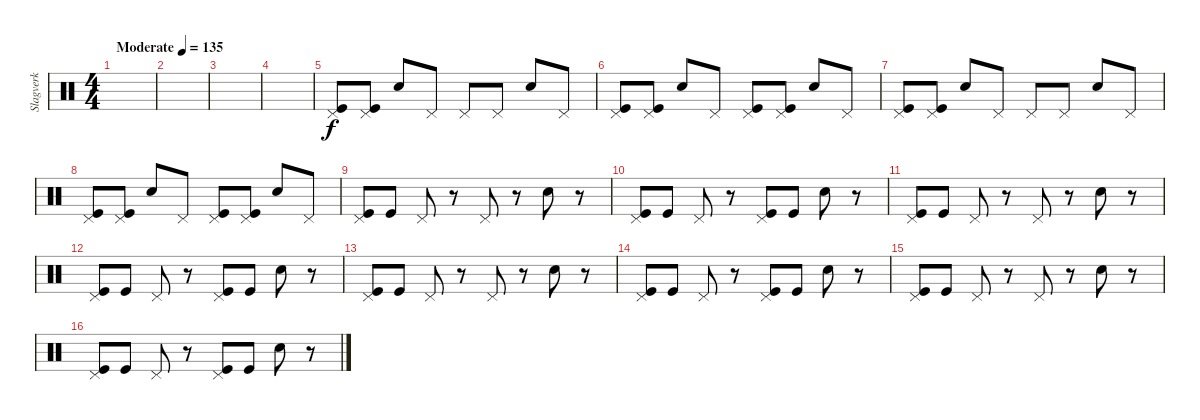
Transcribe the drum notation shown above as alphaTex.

\track ("Slagverk" "Slagverk") {instrument percussion}
\staff {score}
\articulation defaults
\ts (4 4)
\tempo (135 "Moderate")
\clef neutral
\ks c
|
|
|
|
("Pedal Hi-Hat (hit)" "Kick (hit)").8 ("Pedal Hi-Hat (hit)" "Kick (hit)").8 "Hand Clap (hit)".8 "Pedal Hi-Hat (hit)".8 "Pedal Hi-Hat (hit)".8 "Pedal Hi-Hat (hit)".8 "Hand Clap (hit)".8 "Pedal Hi-Hat (hit)".8 |
("Pedal Hi-Hat (hit)" "Kick (hit)").8 ("Pedal Hi-Hat (hit)" "Kick (hit)").8 "Hand Clap (hit)".8 "Pedal Hi-Hat (hit)".8 ("Pedal Hi-Hat (hit)" "Kick (hit)").8 ("Pedal Hi-Hat (hit)" "Kick (hit)").8 "Hand Clap (hit)".8 "Pedal Hi-Hat (hit)".8 |
("Pedal Hi-Hat (hit)" "Kick (hit)").8 ("Pedal Hi-Hat (hit)" "Kick (hit)").8 "Hand Clap (hit)".8 "Pedal Hi-Hat (hit)".8 "Pedal Hi-Hat (hit)".8 "Pedal Hi-Hat (hit)".8 "Hand Clap (hit)".8 "Pedal Hi-Hat (hit)".8 |
("Pedal Hi-Hat (hit)" "Kick (hit)").8 ("Pedal Hi-Hat (hit)" "Kick (hit)").8 "Hand Clap (hit)".8 "Pedal Hi-Hat (hit)".8 ("Pedal Hi-Hat (hit)" "Kick (hit)").8 ("Pedal Hi-Hat (hit)" "Kick (hit)").8 "Hand Clap (hit)".8 "Pedal Hi-Hat (hit)".8 |
("Pedal Hi-Hat (hit)" "Kick (hit)").8 "Kick (hit)".8 "Pedal Hi-Hat (hit)".8 r.8 "Pedal Hi-Hat (hit)".8 r.8 "Hand Clap (hit)".8 r.8 |
("Pedal Hi-Hat (hit)" "Kick (hit)").8 "Kick (hit)".8 "Pedal Hi-Hat (hit)".8 r.8 ("Pedal Hi-Hat (hit)" "Kick (hit)").8 "Kick (hit)".8 "Hand Clap (hit)".8 r.8 |
("Pedal Hi-Hat (hit)" "Kick (hit)").8 "Kick (hit)".8 "Pedal Hi-Hat (hit)".8 r.8 "Pedal Hi-Hat (hit)".8 r.8 "Hand Clap (hit)".8 r.8 |
("Pedal Hi-Hat (hit)" "Kick (hit)").8 "Kick (hit)".8 "Pedal Hi-Hat (hit)".8 r.8 ("Pedal Hi-Hat (hit)" "Kick (hit)").8 "Kick (hit)".8 "Hand Clap (hit)".8 r.8 |
("Pedal Hi-Hat (hit)" "Kick (hit)").8 "Kick (hit)".8 "Pedal Hi-Hat (hit)".8 r.8 "Pedal Hi-Hat (hit)".8 r.8 "Hand Clap (hit)".8 r.8 |
("Pedal Hi-Hat (hit)" "Kick (hit)").8 "Kick (hit)".8 "Pedal Hi-Hat (hit)".8 r.8 ("Pedal Hi-Hat (hit)" "Kick (hit)").8 "Kick (hit)".8 "Hand Clap (hit)".8 r.8 |
("Pedal Hi-Hat (hit)" "Kick (hit)").8 "Kick (hit)".8 "Pedal Hi-Hat (hit)".8 r.8 "Pedal Hi-Hat (hit)".8 r.8 "Hand Clap (hit)".8 r.8 |
("Pedal Hi-Hat (hit)" "Kick (hit)").8 "Kick (hit)".8 "Pedal Hi-Hat (hit)".8 r.8 ("Pedal Hi-Hat (hit)" "Kick (hit)").8 "Kick (hit)".8 "Hand Clap (hit)".8 r.8
